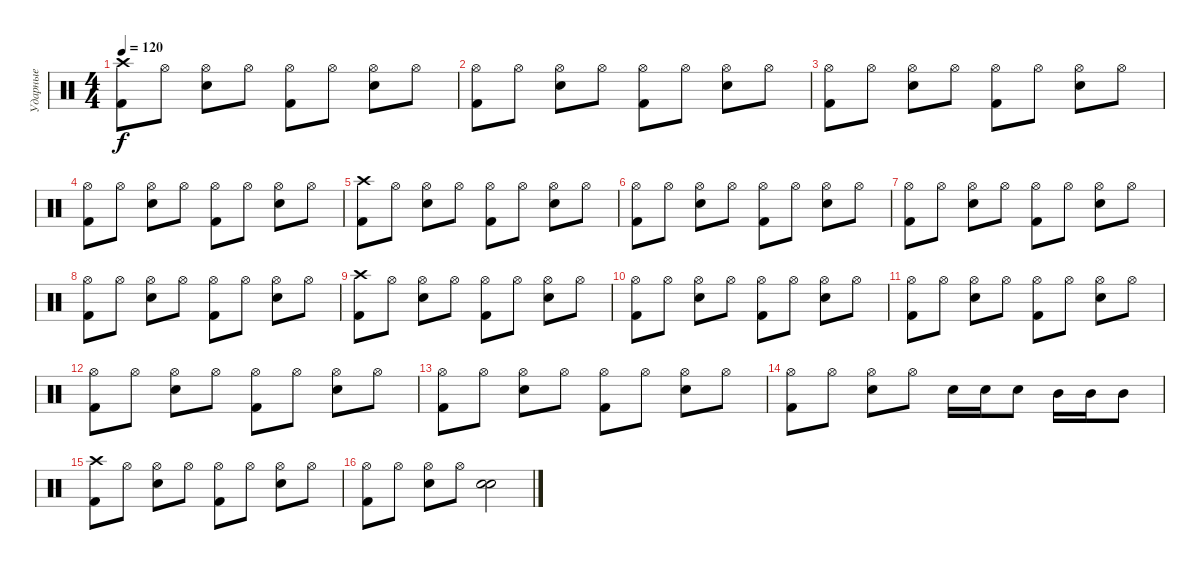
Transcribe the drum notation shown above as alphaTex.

\track ("Ударные" "Ударные") {instrument percussion}
\staff {score}
\articulation defaults
\ts (4 4)
\tempo 120
\clef neutral
\ks c
("Crash high (hit)" "Kick (hit) 2").8{dy f} "Hi-Hat (open)".8 ("Snare (hit) 2" "Hi-Hat (open)").8 "Hi-Hat (open)".8 ("Kick (hit) 2" "Hi-Hat (open)").8 "Hi-Hat (open)".8 ("Snare (hit) 2" "Hi-Hat (open)").8 "Hi-Hat (open)".8 |
("Hi-Hat (open)" "Kick (hit) 2").8 "Hi-Hat (open)".8 ("Snare (hit) 2" "Hi-Hat (open)").8 "Hi-Hat (open)".8 ("Kick (hit) 2" "Hi-Hat (open)").8 "Hi-Hat (open)".8 ("Snare (hit) 2" "Hi-Hat (open)").8 "Hi-Hat (open)".8 |
("Hi-Hat (open)" "Kick (hit) 2").8 "Hi-Hat (open)".8 ("Snare (hit) 2" "Hi-Hat (open)").8 "Hi-Hat (open)".8 ("Kick (hit) 2" "Hi-Hat (open)").8 "Hi-Hat (open)".8 ("Snare (hit) 2" "Hi-Hat (open)").8 "Hi-Hat (open)".8 |
("Hi-Hat (open)" "Kick (hit) 2").8 "Hi-Hat (open)".8 ("Snare (hit) 2" "Hi-Hat (open)").8 "Hi-Hat (open)".8 ("Kick (hit) 2" "Hi-Hat (open)").8 "Hi-Hat (open)".8 ("Snare (hit) 2" "Hi-Hat (open)").8 "Hi-Hat (open)".8 |
("Crash high (hit)" "Kick (hit) 2").8 "Hi-Hat (open)".8 ("Snare (hit) 2" "Hi-Hat (open)").8 "Hi-Hat (open)".8 ("Kick (hit) 2" "Hi-Hat (open)").8 "Hi-Hat (open)".8 ("Snare (hit) 2" "Hi-Hat (open)").8 "Hi-Hat (open)".8 |
("Hi-Hat (open)" "Kick (hit) 2").8 "Hi-Hat (open)".8 ("Snare (hit) 2" "Hi-Hat (open)").8 "Hi-Hat (open)".8 ("Kick (hit) 2" "Hi-Hat (open)").8 "Hi-Hat (open)".8 ("Snare (hit) 2" "Hi-Hat (open)").8 "Hi-Hat (open)".8 |
("Hi-Hat (open)" "Kick (hit) 2").8 "Hi-Hat (open)".8 ("Snare (hit) 2" "Hi-Hat (open)").8 "Hi-Hat (open)".8 ("Kick (hit) 2" "Hi-Hat (open)").8 "Hi-Hat (open)".8 ("Snare (hit) 2" "Hi-Hat (open)").8 "Hi-Hat (open)".8 |
("Hi-Hat (open)" "Kick (hit) 2").8 "Hi-Hat (open)".8 ("Snare (hit) 2" "Hi-Hat (open)").8 "Hi-Hat (open)".8 ("Kick (hit) 2" "Hi-Hat (open)").8 "Hi-Hat (open)".8 ("Snare (hit) 2" "Hi-Hat (open)").8 "Hi-Hat (open)".8 |
("Crash high (hit)" "Kick (hit) 2").8 "Hi-Hat (open)".8 ("Snare (hit) 2" "Hi-Hat (open)").8 "Hi-Hat (open)".8 ("Kick (hit) 2" "Hi-Hat (open)").8 "Hi-Hat (open)".8 ("Snare (hit) 2" "Hi-Hat (open)").8 "Hi-Hat (open)".8 |
("Hi-Hat (open)" "Kick (hit) 2").8 "Hi-Hat (open)".8 ("Snare (hit) 2" "Hi-Hat (open)").8 "Hi-Hat (open)".8 ("Kick (hit) 2" "Hi-Hat (open)").8 "Hi-Hat (open)".8 ("Snare (hit) 2" "Hi-Hat (open)").8 "Hi-Hat (open)".8 |
("Hi-Hat (open)" "Kick (hit) 2").8 "Hi-Hat (open)".8 ("Snare (hit) 2" "Hi-Hat (open)").8 "Hi-Hat (open)".8 ("Kick (hit) 2" "Hi-Hat (open)").8 "Hi-Hat (open)".8 ("Snare (hit) 2" "Hi-Hat (open)").8 "Hi-Hat (open)".8 |
("Hi-Hat (open)" "Kick (hit) 2").8 "Hi-Hat (open)".8 ("Snare (hit) 2" "Hi-Hat (open)").8 "Hi-Hat (open)".8 ("Kick (hit) 2" "Hi-Hat (open)").8 "Hi-Hat (open)".8 ("Snare (hit) 2" "Hi-Hat (open)").8 "Hi-Hat (open)".8 |
("Hi-Hat (open)" "Kick (hit) 2").8 "Hi-Hat (open)".8 ("Snare (hit) 2" "Hi-Hat (open)").8 "Hi-Hat (open)".8 ("Kick (hit) 2" "Hi-Hat (open)").8 "Hi-Hat (open)".8 ("Snare (hit) 2" "Hi-Hat (open)").8 "Hi-Hat (open)".8 |
("Hi-Hat (open)" "Kick (hit) 2").8 "Hi-Hat (open)".8 ("Snare (hit) 2" "Hi-Hat (open)").8 "Hi-Hat (open)".8 "Electric Snare (hit)".16 "Electric Snare (hit)".16 "Electric Snare (hit)".8 "Mid Tom (hit)".16 "Mid Tom (hit)".16 "Mid Tom (hit)".8 |
("Crash high (hit)" "Kick (hit) 2").8 "Hi-Hat (open)".8 ("Snare (hit) 2" "Hi-Hat (open)").8 "Hi-Hat (open)".8 ("Kick (hit) 2" "Hi-Hat (open)").8 "Hi-Hat (open)".8 ("Snare (hit) 2" "Hi-Hat (open)").8 "Hi-Hat (open)".8 |
("Hi-Hat (open)" "Kick (hit) 2").8 "Hi-Hat (open)".8 ("Snare (hit) 2" "Hi-Hat (open)").8 "Hi-Hat (open)".8 ("Electric Snare (hit)" "Snare (hit) 2").2
